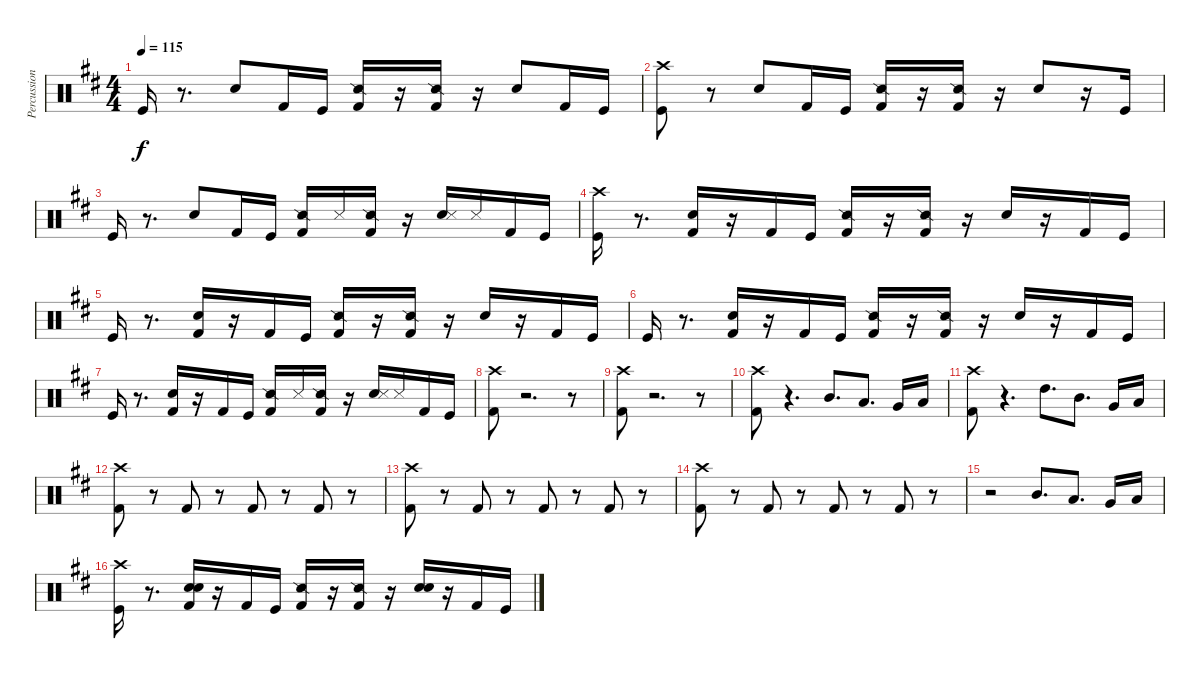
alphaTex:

\track ("Percussions" "Percussion") {instrument percussion}
\staff {score}
\articulation defaults
\ts (4 4)
\tempo 115
\clef neutral
\ks bminor "Kick (hit)".16{dy f}
r.8{d} "Hand Clap (hit)".8 "Kick (hit) 2".16 "Kick (hit)".16 ("Kick (hit) 2" "Snare (side stick) 2").16 r.16 ("Kick (hit) 2" "Snare (side stick) 2").16 r.16 "Hand Clap (hit)".8 "Kick (hit) 2".16 "Kick (hit)".16 |
("Crash high (hit)" "Kick (hit)").8 r.8 "Hand Clap (hit)".8 "Kick (hit) 2".16 "Kick (hit)".16 ("Kick (hit) 2" "Snare (side stick) 2").16 r.16 ("Kick (hit) 2" "Snare (side stick) 2").16 r.16 "Hand Clap (hit)".8 r.16 "Kick (hit)".16 |
"Kick (hit)".16 r.8{d} "Hand Clap (hit)".8 "Kick (hit) 2".16 "Kick (hit)".16 ("Kick (hit) 2" "Snare (side stick) 2").16 "Metronome (hit)".16 ("Kick (hit) 2" "Snare (side stick) 2").16 r.16 ("Hand Clap (hit)" "Snare (side stick) 3").16 "Metronome (hit)".16 "Kick (hit) 2".16 "Kick (hit)".16 |
("Crash high (hit)" "Kick (hit)").16 r.8{d} ("Hand Clap (hit)" "Kick (hit) 2").16 r.16 "Kick (hit) 2".16 "Kick (hit)".16 ("Kick (hit) 2" "Snare (side stick) 2").16 r.16 ("Kick (hit) 2" "Snare (side stick) 2").16 r.16 "Hand Clap (hit)".16 r.16 "Kick (hit) 2".16 "Kick (hit)".16 |
"Kick (hit)".16 r.8{d} ("Hand Clap (hit)" "Kick (hit) 2").16 r.16 "Kick (hit) 2".16 "Kick (hit)".16 ("Kick (hit) 2" "Snare (side stick) 2").16 r.16 ("Kick (hit) 2" "Snare (side stick) 2").16 r.16 "Hand Clap (hit)".16 r.16 "Kick (hit) 2".16 "Kick (hit)".16 |
"Kick (hit)".16 r.8{d} ("Hand Clap (hit)" "Kick (hit) 2").16 r.16 "Kick (hit) 2".16 "Kick (hit)".16 ("Kick (hit) 2" "Snare (side stick) 2").16 r.16 ("Kick (hit) 2" "Snare (side stick) 2").16 r.16 "Hand Clap (hit)".16 r.16 "Kick (hit) 2".16 "Kick (hit)".16 |
"Kick (hit)".16 r.8{d} ("Hand Clap (hit)" "Kick (hit) 2").16 r.16 "Kick (hit) 2".16 "Kick (hit)".16 ("Kick (hit) 2" "Snare (side stick) 2").16 "Metronome (hit)".16 ("Kick (hit) 2" "Snare (side stick) 2").16 r.16 ("Snare (hit) 2" "Snare (side stick) 3").16 "Metronome (hit)".16 "Kick (hit) 2".16 "Kick (hit)".16 |
("Crash high (hit)" "Kick (hit) 2").8 r.2{d} r.8 |
("Crash high (hit)" "Kick (hit) 2").8 r.2{d} r.8 |
("Crash high (hit)" "Kick (hit) 2").8 r.4{d} "Mid Tom (hit)".8{d} "Low Tom (hit)".8{d} "Very Low Tom (hit)".16 "Low Floor Tom (hit)".16 |
("Crash high (hit)" "Kick (hit) 2").8 r.4{d} "High Tom (hit)".8{d} "Mid Tom (hit)".8{d} "Very Low Tom (hit)".16 "Low Floor Tom (hit)".16 |
("Crash high (hit)" "Kick (hit) 2").8 r.8 "Kick (hit) 2".8 r.8 "Kick (hit) 2".8 r.8 "Kick (hit) 2".8 r.8 |
("Crash high (hit)" "Kick (hit) 2").8 r.8 "Kick (hit) 2".8 r.8 "Kick (hit) 2".8 r.8 "Kick (hit) 2".8 r.8 |
("Crash high (hit)" "Kick (hit) 2").8 r.8 "Kick (hit) 2".8 r.8 "Kick (hit) 2".8 r.8 "Kick (hit) 2".8 r.8 |
r.2 "Mid Tom (hit)".8{d} "Low Tom (hit)".8{d} "Very Low Tom (hit)".16 "Low Floor Tom (hit)".16 |
("Crash high (hit)" "Kick (hit)").16 r.8{d} ("Hand Clap (hit)" "Snare (hit) 2" "Kick (hit) 2").16 r.16 "Kick (hit) 2".16 "Kick (hit)".16 ("Kick (hit) 2" "Snare (side stick) 2").16 r.16 ("Kick (hit) 2" "Snare (side stick) 2").16 r.16 ("Hand Clap (hit)" "Snare (hit) 2").16 r.16 "Kick (hit) 2".16 "Kick (hit)".16
